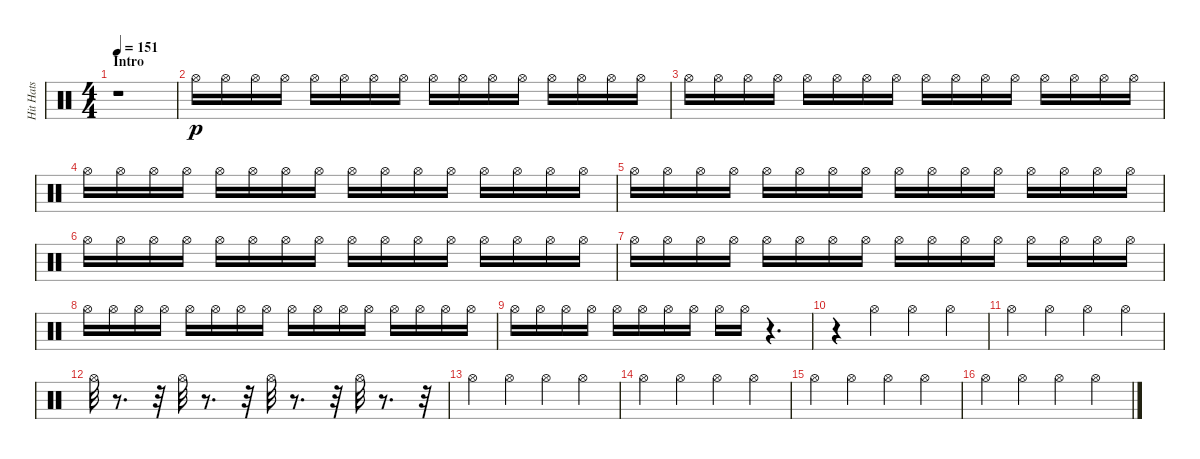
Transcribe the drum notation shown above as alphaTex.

\track ("Hit Hats" "Hit Hats") {instrument percussion}
\staff {score}
\articulation defaults
\ts (4 4)
\section ("" "Intro")
\tempo 151
\clef neutral
\ks c
r.1{dy p} |
"Hi-Hat (open)".16 "Hi-Hat (open)".16 "Hi-Hat (open)".16 "Hi-Hat (open)".16 "Hi-Hat (open)".16 "Hi-Hat (open)".16 "Hi-Hat (open)".16 "Hi-Hat (open)".16 "Hi-Hat (open)".16 "Hi-Hat (open)".16 "Hi-Hat (open)".16 "Hi-Hat (open)".16 "Hi-Hat (open)".16 "Hi-Hat (open)".16 "Hi-Hat (open)".16 "Hi-Hat (open)".16 |
"Hi-Hat (open)".16 "Hi-Hat (open)".16 "Hi-Hat (open)".16 "Hi-Hat (open)".16 "Hi-Hat (open)".16 "Hi-Hat (open)".16 "Hi-Hat (open)".16 "Hi-Hat (open)".16 "Hi-Hat (open)".16 "Hi-Hat (open)".16 "Hi-Hat (open)".16 "Hi-Hat (open)".16 "Hi-Hat (open)".16 "Hi-Hat (open)".16 "Hi-Hat (open)".16 "Hi-Hat (open)".16 |
"Hi-Hat (open)".16 "Hi-Hat (open)".16 "Hi-Hat (open)".16 "Hi-Hat (open)".16 "Hi-Hat (open)".16 "Hi-Hat (open)".16 "Hi-Hat (open)".16 "Hi-Hat (open)".16 "Hi-Hat (open)".16 "Hi-Hat (open)".16 "Hi-Hat (open)".16 "Hi-Hat (open)".16 "Hi-Hat (open)".16 "Hi-Hat (open)".16 "Hi-Hat (open)".16 "Hi-Hat (open)".16 |
"Hi-Hat (open)".16 "Hi-Hat (open)".16 "Hi-Hat (open)".16 "Hi-Hat (open)".16 "Hi-Hat (open)".16 "Hi-Hat (open)".16 "Hi-Hat (open)".16 "Hi-Hat (open)".16 "Hi-Hat (open)".16 "Hi-Hat (open)".16 "Hi-Hat (open)".16 "Hi-Hat (open)".16 "Hi-Hat (open)".16 "Hi-Hat (open)".16 "Hi-Hat (open)".16 "Hi-Hat (open)".16 |
"Hi-Hat (open)".16 "Hi-Hat (open)".16 "Hi-Hat (open)".16 "Hi-Hat (open)".16 "Hi-Hat (open)".16 "Hi-Hat (open)".16 "Hi-Hat (open)".16 "Hi-Hat (open)".16 "Hi-Hat (open)".16 "Hi-Hat (open)".16 "Hi-Hat (open)".16 "Hi-Hat (open)".16 "Hi-Hat (open)".16 "Hi-Hat (open)".16 "Hi-Hat (open)".16 "Hi-Hat (open)".16 |
"Hi-Hat (open)".16 "Hi-Hat (open)".16 "Hi-Hat (open)".16 "Hi-Hat (open)".16 "Hi-Hat (open)".16 "Hi-Hat (open)".16 "Hi-Hat (open)".16 "Hi-Hat (open)".16 "Hi-Hat (open)".16 "Hi-Hat (open)".16 "Hi-Hat (open)".16 "Hi-Hat (open)".16 "Hi-Hat (open)".16 "Hi-Hat (open)".16 "Hi-Hat (open)".16 "Hi-Hat (open)".16 |
"Hi-Hat (open)".16 "Hi-Hat (open)".16 "Hi-Hat (open)".16 "Hi-Hat (open)".16 "Hi-Hat (open)".16 "Hi-Hat (open)".16 "Hi-Hat (open)".16 "Hi-Hat (open)".16 "Hi-Hat (open)".16 "Hi-Hat (open)".16 "Hi-Hat (open)".16 "Hi-Hat (open)".16 "Hi-Hat (open)".16 "Hi-Hat (open)".16 "Hi-Hat (open)".16 "Hi-Hat (open)".16 |
"Hi-Hat (open)".16 "Hi-Hat (open)".16 "Hi-Hat (open)".16 "Hi-Hat (open)".16 "Hi-Hat (open)".16 "Hi-Hat (open)".16 "Hi-Hat (open)".16 "Hi-Hat (open)".16 "Hi-Hat (open)".16 "Hi-Hat (open)".16 r.4{d} |
r.4 "Hi-Hat (open)".4 "Hi-Hat (open)".4 "Hi-Hat (open)".4 |
"Hi-Hat (open)".4 "Hi-Hat (open)".4 "Hi-Hat (open)".4 "Hi-Hat (open)".4 |
"Hi-Hat (open)".32 r.8{d} r.32 "Hi-Hat (open)".32 r.8{d} r.32 "Hi-Hat (open)".32 r.8{d} r.32 "Hi-Hat (open)".32 r.8{d} r.32 |
"Hi-Hat (open)".4 "Hi-Hat (open)".4 "Hi-Hat (open)".4 "Hi-Hat (open)".4 |
"Hi-Hat (open)".4 "Hi-Hat (open)".4 "Hi-Hat (open)".4 "Hi-Hat (open)".4 |
"Hi-Hat (open)".4 "Hi-Hat (open)".4 "Hi-Hat (open)".4 "Hi-Hat (open)".4 |
"Hi-Hat (open)".4 "Hi-Hat (open)".4 "Hi-Hat (open)".4 "Hi-Hat (open)".4
